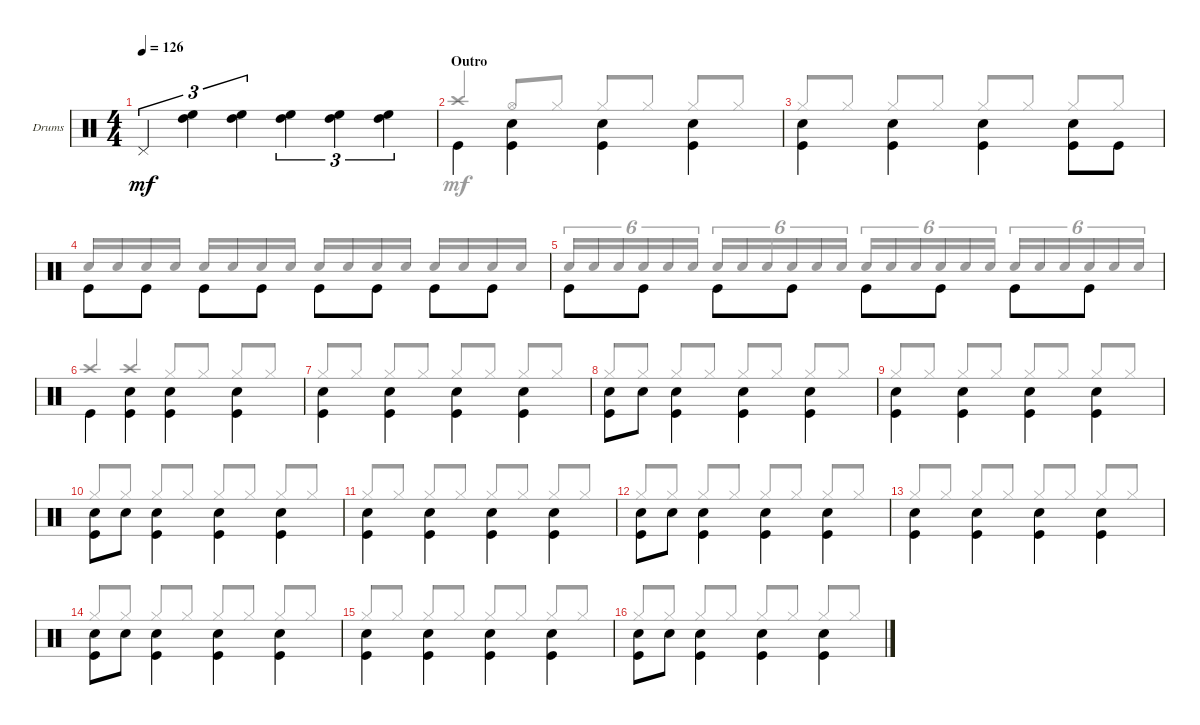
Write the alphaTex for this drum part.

\defaultSystemsLayout 4
\bracketExtendMode groupsimilarinstruments
\firstSystemTrackNameOrientation horizontal
\otherSystemsTrackNameOrientation horizontal
\track ("PETER CRISS" "Drums") {instrument percussion}
\staff {score}
\articulation defaults
\voice
\ts (4 4)
\tempo 126
\clef neutral
\ks c "Pedal Hi-Hat (hit)".4{tu (3 2) dy mf}
("High Tom (hit)" "High Floor Tom (hit)").4{tu (3 2)} ("High Floor Tom (hit)" "High Tom (hit)").4{tu (3 2)} ("High Tom (hit)" "High Floor Tom (hit)").4{tu (3 2)} ("High Tom (hit)" "High Floor Tom (hit)").4{tu (3 2)} ("High Tom (hit)" "High Floor Tom (hit)").4{tu (3 2)} |
\section ("" "Outro")
"Kick (hit)".4{beam invert} ("Snare (hit) 2" "Kick (hit)").4{beam invert} ("Snare (hit) 2" "Kick (hit)").4{beam invert} ("Snare (hit) 2" "Kick (hit)").4{beam invert} |
("Snare (hit) 2" "Kick (hit)").4{beam invert} ("Snare (hit) 2" "Kick (hit)").4{beam invert} ("Snare (hit) 2" "Kick (hit)").4{beam invert} ("Snare (hit) 2" "Kick (hit)").8{beam invert} "Kick (hit)".8 |
"Kick (hit)".8{beam invert} "Kick (hit)".8 "Kick (hit)".8{beam invert} "Kick (hit)".8 "Kick (hit)".8{beam invert} "Kick (hit)".8 "Kick (hit)".8{beam invert} "Kick (hit)".8 |
"Kick (hit)".8{beam invert} "Kick (hit)".8 "Kick (hit)".8{beam invert} "Kick (hit)".8 "Kick (hit)".8{beam invert} "Kick (hit)".8 "Kick (hit)".8{beam invert} "Kick (hit)".8 |
"Kick (hit)".4{beam invert} ("Snare (hit) 2" "Kick (hit)").4{beam invert} ("Snare (hit) 2" "Kick (hit)").4{beam invert} ("Snare (hit) 2" "Kick (hit)").4{beam invert} |
("Snare (hit) 2" "Kick (hit)").4{beam invert} ("Snare (hit) 2" "Kick (hit)").4{beam invert} ("Snare (hit) 2" "Kick (hit)").4{beam invert} ("Snare (hit) 2" "Kick (hit)").4{beam invert} |
("Snare (hit) 2" "Kick (hit)").8{beam invert} "Snare (hit) 2".8 ("Snare (hit) 2" "Kick (hit)").4{beam invert} ("Snare (hit) 2" "Kick (hit)").4{beam invert} ("Snare (hit) 2" "Kick (hit)").4{beam invert} |
("Snare (hit) 2" "Kick (hit)").4{beam invert} ("Snare (hit) 2" "Kick (hit)").4{beam invert} ("Snare (hit) 2" "Kick (hit)").4{beam invert} ("Snare (hit) 2" "Kick (hit)").4{beam invert} |
("Snare (hit) 2" "Kick (hit)").8{beam invert} "Snare (hit) 2".8 ("Snare (hit) 2" "Kick (hit)").4{beam invert} ("Snare (hit) 2" "Kick (hit)").4{beam invert} ("Snare (hit) 2" "Kick (hit)").4{beam invert} |
("Snare (hit) 2" "Kick (hit)").4{beam invert} ("Snare (hit) 2" "Kick (hit)").4{beam invert} ("Snare (hit) 2" "Kick (hit)").4{beam invert} ("Snare (hit) 2" "Kick (hit)").4{beam invert} |
("Snare (hit) 2" "Kick (hit)").8{beam invert} "Snare (hit) 2".8 ("Snare (hit) 2" "Kick (hit)").4{beam invert} ("Snare (hit) 2" "Kick (hit)").4{beam invert} ("Snare (hit) 2" "Kick (hit)").4{beam invert} |
("Snare (hit) 2" "Kick (hit)").4{beam invert} ("Snare (hit) 2" "Kick (hit)").4{beam invert} ("Snare (hit) 2" "Kick (hit)").4{beam invert} ("Snare (hit) 2" "Kick (hit)").4{beam invert} |
("Snare (hit) 2" "Kick (hit)").8{beam invert} "Snare (hit) 2".8 ("Snare (hit) 2" "Kick (hit)").4{beam invert} ("Snare (hit) 2" "Kick (hit)").4{beam invert} ("Snare (hit) 2" "Kick (hit)").4{beam invert} |
("Snare (hit) 2" "Kick (hit)").4{beam invert} ("Snare (hit) 2" "Kick (hit)").4{beam invert} ("Snare (hit) 2" "Kick (hit)").4{beam invert} ("Snare (hit) 2" "Kick (hit)").4{beam invert} |
("Snare (hit) 2" "Kick (hit)").8{beam invert} "Snare (hit) 2".8 ("Snare (hit) 2" "Kick (hit)").4{beam invert} ("Snare (hit) 2" "Kick (hit)").4{beam invert} ("Snare (hit) 2" "Kick (hit)").4{beam invert}
\voice
\clef neutral
\ottava regular
\simile none
\ks c
|
"Crash high (hit)".4{beam invert} "Hi-Hat (open)".8{beam invert} "Hi-Hat (closed)".8 "Hi-Hat (closed)".8{beam invert} "Hi-Hat (closed)".8 "Hi-Hat (closed)".8{beam invert} "Hi-Hat (closed)".8 |
"Hi-Hat (closed)".8{beam invert} "Hi-Hat (closed)".8 "Hi-Hat (closed)".8{beam invert} "Hi-Hat (closed)".8 "Hi-Hat (closed)".8{beam invert} "Hi-Hat (closed)".8 "Hi-Hat (closed)".8{beam invert} "Hi-Hat (closed)".8 |
"Snare (hit) 2".16{beam invert} "Snare (hit) 2".16 "Snare (hit) 2".16 "Snare (hit) 2".16 "Snare (hit) 2".16{beam invert} "Snare (hit) 2".16 "Snare (hit) 2".16 "Snare (hit) 2".16 "Snare (hit) 2".16{beam invert} "Snare (hit) 2".16 "Snare (hit) 2".16 "Snare (hit) 2".16 "Snare (hit) 2".16{beam invert} "Snare (hit) 2".16 "Snare (hit) 2".16 "Snare (hit) 2".16 |
"Snare (hit) 2".16{tu (6 4) beam invert} "Snare (hit) 2".16{tu (6 4)} "Snare (hit) 2".16{tu (6 4)} "Snare (hit) 2".16{tu (6 4)} "Snare (hit) 2".16{tu (6 4)} "Snare (hit) 2".16{tu (6 4)} "Snare (hit) 2".16{tu (6 4)} "Snare (hit) 2".16{tu (6 4)} "Snare (hit) 2".16{tu (6 4) beam invert} "Snare (hit) 2".16{tu (6 4)} "Snare (hit) 2".16{tu (6 4)} "Snare (hit) 2".16{tu (6 4)} "Snare (hit) 2".16{tu (6 4) beam invert} "Snare (hit) 2".16{tu (6 4)} "Snare (hit) 2".16{tu (6 4)} "Snare (hit) 2".16{tu (6 4)} "Snare (hit) 2".16{tu (6 4)} "Snare (hit) 2".16{tu (6 4)} "Snare (hit) 2".16{tu (6 4) beam invert} "Snare (hit) 2".16{tu (6 4)} "Snare (hit) 2".16{tu (6 4)} "Snare (hit) 2".16{tu (6 4)} "Snare (hit) 2".16{tu (6 4)} "Snare (hit) 2".16{tu (6 4)} |
"Crash high (hit)".4{beam invert} "Crash high (hit)".4{beam invert} "Hi-Hat (closed)".8{beam invert} "Hi-Hat (closed)".8 "Hi-Hat (closed)".8{beam invert} "Hi-Hat (closed)".8 |
"Hi-Hat (closed)".8{beam invert} "Hi-Hat (closed)".8 "Hi-Hat (closed)".8{beam invert} "Hi-Hat (closed)".8 "Hi-Hat (closed)".8{beam invert} "Hi-Hat (closed)".8 "Hi-Hat (closed)".8{beam invert} "Hi-Hat (closed)".8 |
"Hi-Hat (closed)".8{beam invert} "Hi-Hat (closed)".8 "Hi-Hat (closed)".8{beam invert} "Hi-Hat (closed)".8 "Hi-Hat (closed)".8{beam invert} "Hi-Hat (closed)".8 "Hi-Hat (closed)".8{beam invert} "Hi-Hat (closed)".8 |
"Hi-Hat (closed)".8{beam invert} "Hi-Hat (closed)".8 "Hi-Hat (closed)".8{beam invert} "Hi-Hat (closed)".8 "Hi-Hat (closed)".8{beam invert} "Hi-Hat (closed)".8 "Hi-Hat (closed)".8{beam invert} "Hi-Hat (closed)".8 |
"Hi-Hat (closed)".8{beam invert} "Hi-Hat (closed)".8 "Hi-Hat (closed)".8{beam invert} "Hi-Hat (closed)".8 "Hi-Hat (closed)".8{beam invert} "Hi-Hat (closed)".8 "Hi-Hat (closed)".8{beam invert} "Hi-Hat (closed)".8 |
"Hi-Hat (closed)".8{beam invert} "Hi-Hat (closed)".8 "Hi-Hat (closed)".8{beam invert} "Hi-Hat (closed)".8 "Hi-Hat (closed)".8{beam invert} "Hi-Hat (closed)".8 "Hi-Hat (closed)".8{beam invert} "Hi-Hat (closed)".8 |
"Hi-Hat (closed)".8{beam invert} "Hi-Hat (closed)".8 "Hi-Hat (closed)".8{beam invert} "Hi-Hat (closed)".8 "Hi-Hat (closed)".8{beam invert} "Hi-Hat (closed)".8 "Hi-Hat (closed)".8{beam invert} "Hi-Hat (closed)".8 |
"Hi-Hat (closed)".8{beam invert} "Hi-Hat (closed)".8 "Hi-Hat (closed)".8{beam invert} "Hi-Hat (closed)".8 "Hi-Hat (closed)".8{beam invert} "Hi-Hat (closed)".8 "Hi-Hat (closed)".8{beam invert} "Hi-Hat (closed)".8 |
"Hi-Hat (closed)".8{beam invert} "Hi-Hat (closed)".8 "Hi-Hat (closed)".8{beam invert} "Hi-Hat (closed)".8 "Hi-Hat (closed)".8{beam invert} "Hi-Hat (closed)".8 "Hi-Hat (closed)".8{beam invert} "Hi-Hat (closed)".8 |
"Hi-Hat (closed)".8{beam invert} "Hi-Hat (closed)".8 "Hi-Hat (closed)".8{beam invert} "Hi-Hat (closed)".8 "Hi-Hat (closed)".8{beam invert} "Hi-Hat (closed)".8 "Hi-Hat (closed)".8{beam invert} "Hi-Hat (closed)".8 |
"Hi-Hat (closed)".8{beam invert} "Hi-Hat (closed)".8 "Hi-Hat (closed)".8{beam invert} "Hi-Hat (closed)".8 "Hi-Hat (closed)".8{beam invert} "Hi-Hat (closed)".8 "Hi-Hat (closed)".8{beam invert} "Hi-Hat (closed)".8
